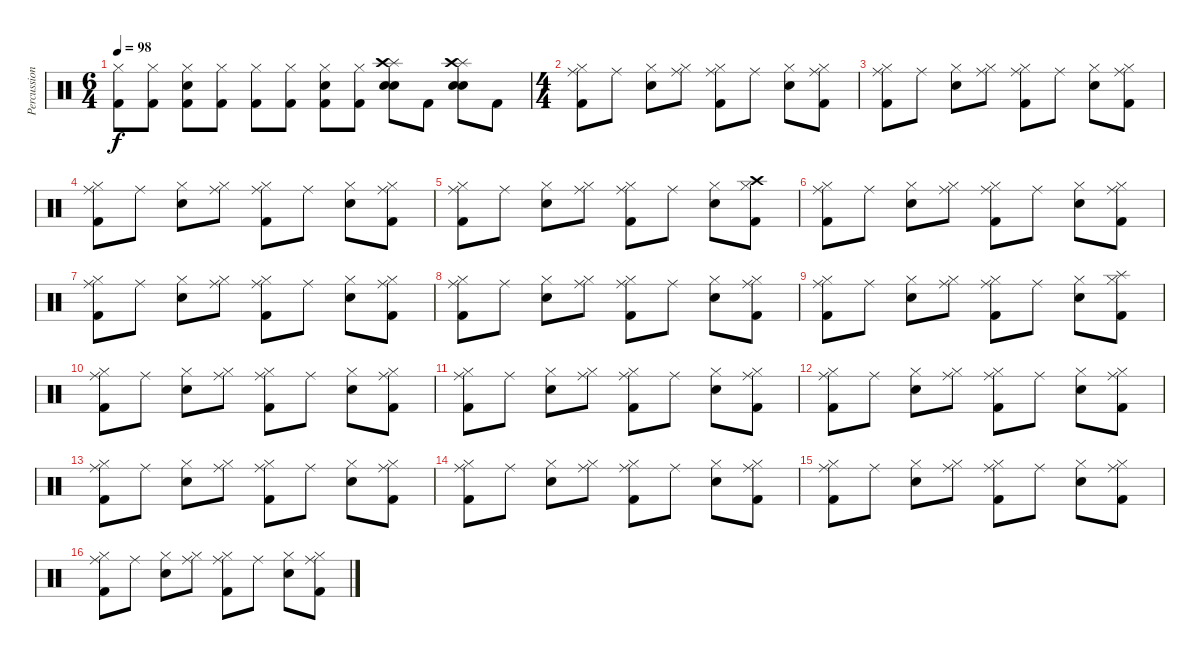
\track ("Percussion" "Percussion") {instrument percussion}
\staff {score}
\articulation defaults
\ts (6 4)
\tempo 98
\clef neutral
\ks c
("Hi-Hat (closed)" "Kick (hit) 2").8{dy f} ("Hi-Hat (closed)" "Kick (hit) 2").8 ("Hi-Hat (closed)" "Kick (hit) 2" "Electric Snare (hit)").8 ("Hi-Hat (closed)" "Kick (hit) 2").8 ("Hi-Hat (closed)" "Kick (hit) 2").8 ("Hi-Hat (closed)" "Kick (hit) 2").8 ("Hi-Hat (closed)" "Kick (hit) 2" "Electric Snare (hit)").8 ("Hi-Hat (closed)" "Kick (hit) 2").8 ("Splash (hit)" "Snare (hit) 2" "Electric Snare (hit)" "Crash high (hit)").8 "Kick (hit) 2".8 ("Splash (hit)" "Snare (hit) 2" "Electric Snare (hit)" "Crash high (hit)").8 "Kick (hit) 2".8 |
\ts (4 4)
("Hi-Hat (closed)" "Kick (hit) 2" "Ride (middle)").8 "Ride (middle)".8 ("Hi-Hat (closed)" "Electric Snare (hit)").8 ("Hi-Hat (closed)" "Ride (middle)").8 ("Hi-Hat (closed)" "Kick (hit) 2" "Ride (middle)").8 "Ride (middle)".8 ("Hi-Hat (closed)" "Electric Snare (hit)").8 ("Hi-Hat (closed)" "Kick (hit) 2" "Ride (middle)").8 |
("Hi-Hat (closed)" "Kick (hit) 2" "Ride (middle)").8 "Ride (middle)".8 ("Hi-Hat (closed)" "Electric Snare (hit)").8 ("Hi-Hat (closed)" "Ride (middle)").8 ("Hi-Hat (closed)" "Kick (hit) 2" "Ride (middle)").8 "Ride (middle)".8 ("Hi-Hat (closed)" "Electric Snare (hit)").8 ("Hi-Hat (closed)" "Kick (hit) 2" "Ride (middle)").8 |
("Hi-Hat (closed)" "Kick (hit) 2" "Ride (middle)").8 "Ride (middle)".8 ("Hi-Hat (closed)" "Electric Snare (hit)").8 ("Hi-Hat (closed)" "Ride (middle)").8 ("Hi-Hat (closed)" "Kick (hit) 2" "Ride (middle)").8 "Ride (middle)".8 ("Hi-Hat (closed)" "Electric Snare (hit)").8 ("Hi-Hat (closed)" "Kick (hit) 2" "Ride (middle)").8 |
("Hi-Hat (closed)" "Kick (hit) 2" "Ride (middle)").8 "Ride (middle)".8 ("Hi-Hat (closed)" "Electric Snare (hit)").8 ("Hi-Hat (closed)" "Ride (middle)").8 ("Hi-Hat (closed)" "Kick (hit) 2" "Ride (middle)").8 "Ride (middle)".8 ("Hi-Hat (closed)" "Electric Snare (hit)").8 ("Hi-Hat (closed)" "Kick (hit) 2" "Crash high (hit)").8 |
("Hi-Hat (closed)" "Kick (hit) 2" "Ride (middle)").8 "Ride (middle)".8 ("Hi-Hat (closed)" "Electric Snare (hit)").8 ("Hi-Hat (closed)" "Ride (middle)").8 ("Hi-Hat (closed)" "Kick (hit) 2" "Ride (middle)").8 "Ride (middle)".8 ("Hi-Hat (closed)" "Electric Snare (hit)").8 ("Hi-Hat (closed)" "Kick (hit) 2" "Ride (middle)").8 |
("Hi-Hat (closed)" "Kick (hit) 2" "Ride (middle)").8 "Ride (middle)".8 ("Hi-Hat (closed)" "Electric Snare (hit)").8 ("Hi-Hat (closed)" "Ride (middle)").8 ("Hi-Hat (closed)" "Kick (hit) 2" "Ride (middle)").8 "Ride (middle)".8 ("Hi-Hat (closed)" "Electric Snare (hit)").8 ("Hi-Hat (closed)" "Kick (hit) 2" "Ride (middle)").8 |
("Hi-Hat (closed)" "Kick (hit) 2" "Ride (middle)").8 "Ride (middle)".8 ("Hi-Hat (closed)" "Electric Snare (hit)").8 ("Hi-Hat (closed)" "Ride (middle)").8 ("Hi-Hat (closed)" "Kick (hit) 2" "Ride (middle)").8 "Ride (middle)".8 ("Hi-Hat (closed)" "Electric Snare (hit)").8 ("Hi-Hat (closed)" "Kick (hit) 2" "Ride (middle)").8 |
("Hi-Hat (closed)" "Kick (hit) 2" "Ride (middle)").8 "Ride (middle)".8 ("Hi-Hat (closed)" "Electric Snare (hit)").8 ("Hi-Hat (closed)" "Ride (middle)").8 ("Hi-Hat (closed)" "Kick (hit) 2" "Ride (middle)").8 "Ride (middle)".8 ("Hi-Hat (closed)" "Electric Snare (hit)").8 ("Hi-Hat (closed)" "Kick (hit) 2" "Splash (hit)").8 |
("Hi-Hat (closed)" "Kick (hit) 2" "Ride (middle)").8 "Ride (middle)".8 ("Hi-Hat (closed)" "Electric Snare (hit)").8 ("Hi-Hat (closed)" "Ride (middle)").8 ("Hi-Hat (closed)" "Kick (hit) 2" "Ride (middle)").8 "Ride (middle)".8 ("Hi-Hat (closed)" "Electric Snare (hit)").8 ("Hi-Hat (closed)" "Kick (hit) 2" "Ride (middle)").8 |
("Hi-Hat (closed)" "Kick (hit) 2" "Ride (middle)").8 "Ride (middle)".8 ("Hi-Hat (closed)" "Electric Snare (hit)").8 ("Hi-Hat (closed)" "Ride (middle)").8 ("Hi-Hat (closed)" "Kick (hit) 2" "Ride (middle)").8 "Ride (middle)".8 ("Hi-Hat (closed)" "Electric Snare (hit)").8 ("Hi-Hat (closed)" "Kick (hit) 2" "Ride (middle)").8 |
("Hi-Hat (closed)" "Kick (hit) 2" "Ride (middle)").8 "Ride (middle)".8 ("Hi-Hat (closed)" "Electric Snare (hit)").8 ("Hi-Hat (closed)" "Ride (middle)").8 ("Hi-Hat (closed)" "Kick (hit) 2" "Ride (middle)").8 "Ride (middle)".8 ("Hi-Hat (closed)" "Electric Snare (hit)").8 ("Hi-Hat (closed)" "Kick (hit) 2" "Ride (middle)").8 |
("Hi-Hat (closed)" "Kick (hit) 2" "Ride (middle)").8 "Ride (middle)".8 ("Hi-Hat (closed)" "Electric Snare (hit)").8 ("Hi-Hat (closed)" "Ride (middle)").8 ("Hi-Hat (closed)" "Kick (hit) 2" "Ride (middle)").8 "Ride (middle)".8 ("Hi-Hat (closed)" "Electric Snare (hit)").8 ("Hi-Hat (closed)" "Kick (hit) 2" "Ride (middle)").8 |
("Hi-Hat (closed)" "Kick (hit) 2" "Ride (middle)").8 "Ride (middle)".8 ("Hi-Hat (closed)" "Electric Snare (hit)").8 ("Hi-Hat (closed)" "Ride (middle)").8 ("Hi-Hat (closed)" "Kick (hit) 2" "Ride (middle)").8 "Ride (middle)".8 ("Hi-Hat (closed)" "Electric Snare (hit)").8 ("Hi-Hat (closed)" "Kick (hit) 2" "Ride (middle)").8 |
("Hi-Hat (closed)" "Kick (hit) 2" "Ride (middle)").8 "Ride (middle)".8 ("Hi-Hat (closed)" "Electric Snare (hit)").8 ("Hi-Hat (closed)" "Ride (middle)").8 ("Hi-Hat (closed)" "Kick (hit) 2" "Ride (middle)").8 "Ride (middle)".8 ("Hi-Hat (closed)" "Electric Snare (hit)").8 ("Hi-Hat (closed)" "Kick (hit) 2" "Ride (middle)").8 |
("Hi-Hat (closed)" "Kick (hit) 2" "Ride (middle)").8 "Ride (middle)".8 ("Hi-Hat (closed)" "Electric Snare (hit)").8 ("Hi-Hat (closed)" "Ride (middle)").8 ("Hi-Hat (closed)" "Kick (hit) 2" "Ride (middle)").8 "Ride (middle)".8 ("Hi-Hat (closed)" "Electric Snare (hit)").8 ("Hi-Hat (closed)" "Kick (hit) 2" "Ride (middle)").8
